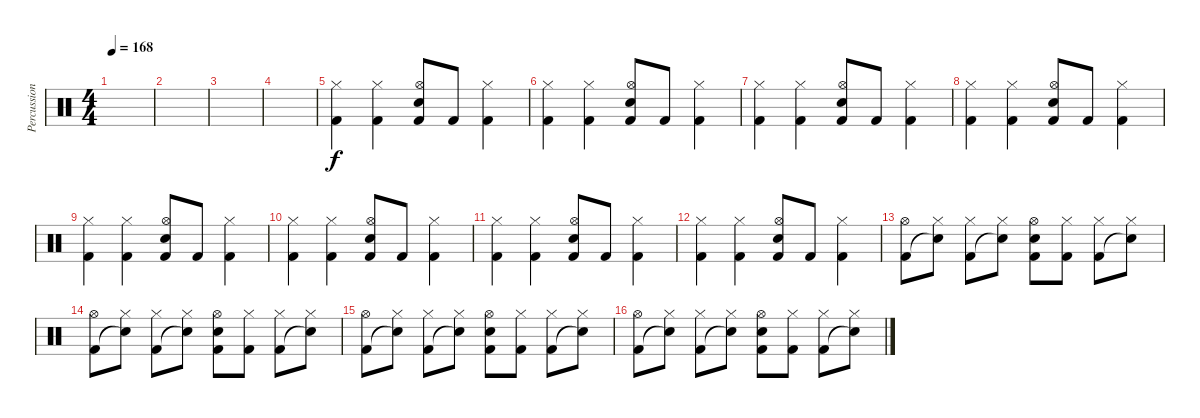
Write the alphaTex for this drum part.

\track ("Percussion" "Percussion") {instrument percussion}
\staff {score}
\articulation defaults
\ts (4 4)
\tempo 168
\clef neutral
\ks c
|
|
|
|
("Hi-Hat (closed)" "Kick (hit) 2").4 ("Hi-Hat (closed)" "Kick (hit) 2").4 ("Hi-Hat (open)" "Electric Snare (hit)" "Kick (hit) 2").8 "Kick (hit) 2".8 ("Hi-Hat (closed)" "Kick (hit) 2").4 |
("Hi-Hat (closed)" "Kick (hit) 2").4 ("Hi-Hat (closed)" "Kick (hit) 2").4 ("Hi-Hat (open)" "Electric Snare (hit)" "Kick (hit) 2").8 "Kick (hit) 2".8 ("Hi-Hat (closed)" "Kick (hit) 2").4 |
("Hi-Hat (closed)" "Kick (hit) 2").4 ("Hi-Hat (closed)" "Kick (hit) 2").4 ("Hi-Hat (open)" "Electric Snare (hit)" "Kick (hit) 2").8 "Kick (hit) 2".8 ("Hi-Hat (closed)" "Kick (hit) 2").4 |
("Hi-Hat (closed)" "Kick (hit) 2").4 ("Hi-Hat (closed)" "Kick (hit) 2").4 ("Hi-Hat (open)" "Electric Snare (hit)" "Kick (hit) 2").8 "Kick (hit) 2".8 ("Hi-Hat (closed)" "Kick (hit) 2").4 |
("Hi-Hat (closed)" "Kick (hit) 2").4 ("Hi-Hat (closed)" "Kick (hit) 2").4 ("Hi-Hat (open)" "Electric Snare (hit)" "Kick (hit) 2").8 "Kick (hit) 2".8 ("Hi-Hat (closed)" "Kick (hit) 2").4 |
("Hi-Hat (closed)" "Kick (hit) 2").4 ("Hi-Hat (closed)" "Kick (hit) 2").4 ("Hi-Hat (open)" "Electric Snare (hit)" "Kick (hit) 2").8 "Kick (hit) 2".8 ("Hi-Hat (closed)" "Kick (hit) 2").4 |
("Hi-Hat (closed)" "Kick (hit) 2").4 ("Hi-Hat (closed)" "Kick (hit) 2").4 ("Hi-Hat (open)" "Electric Snare (hit)" "Kick (hit) 2").8 "Kick (hit) 2".8 ("Hi-Hat (closed)" "Kick (hit) 2").4 |
("Hi-Hat (closed)" "Kick (hit) 2").4 ("Hi-Hat (closed)" "Kick (hit) 2").4 ("Hi-Hat (open)" "Electric Snare (hit)" "Kick (hit) 2").8 "Kick (hit) 2".8 ("Hi-Hat (closed)" "Kick (hit) 2").4 |
("Hi-Hat (open)" "Kick (hit) 2").8 ("Hi-Hat (closed)" "Snare (hit)"{t}).8 ("Hi-Hat (closed)" "Kick (hit) 2").8 ("Hi-Hat (closed)" "Snare (hit)"{t}).8 ("Hi-Hat (open)" "Electric Snare (hit)" "Kick (hit) 2").8 ("Hi-Hat (closed)" "Kick (hit) 2").8 ("Hi-Hat (closed)" "Kick (hit) 2").8 ("Hi-Hat (closed)" "Snare (hit)"{t}).8 |
("Hi-Hat (open)" "Kick (hit) 2").8 ("Hi-Hat (closed)" "Snare (hit)"{t}).8 ("Hi-Hat (closed)" "Kick (hit) 2").8 ("Hi-Hat (closed)" "Snare (hit)"{t}).8 ("Hi-Hat (open)" "Electric Snare (hit)" "Kick (hit) 2").8 ("Hi-Hat (closed)" "Kick (hit) 2").8 ("Hi-Hat (closed)" "Kick (hit) 2").8 ("Hi-Hat (closed)" "Snare (hit)"{t}).8 |
("Hi-Hat (open)" "Kick (hit) 2").8 ("Hi-Hat (closed)" "Snare (hit)"{t}).8 ("Hi-Hat (closed)" "Kick (hit) 2").8 ("Hi-Hat (closed)" "Snare (hit)"{t}).8 ("Hi-Hat (open)" "Electric Snare (hit)" "Kick (hit) 2").8 ("Hi-Hat (closed)" "Kick (hit) 2").8 ("Hi-Hat (closed)" "Kick (hit) 2").8 ("Hi-Hat (closed)" "Snare (hit)"{t}).8 |
("Hi-Hat (open)" "Kick (hit) 2").8 ("Hi-Hat (closed)" "Snare (hit)"{t}).8 ("Hi-Hat (closed)" "Kick (hit) 2").8 ("Hi-Hat (closed)" "Snare (hit)"{t}).8 ("Hi-Hat (open)" "Electric Snare (hit)" "Kick (hit) 2").8 ("Hi-Hat (closed)" "Kick (hit) 2").8 ("Hi-Hat (closed)" "Kick (hit) 2").8 ("Hi-Hat (closed)" "Snare (hit)"{t}).8
